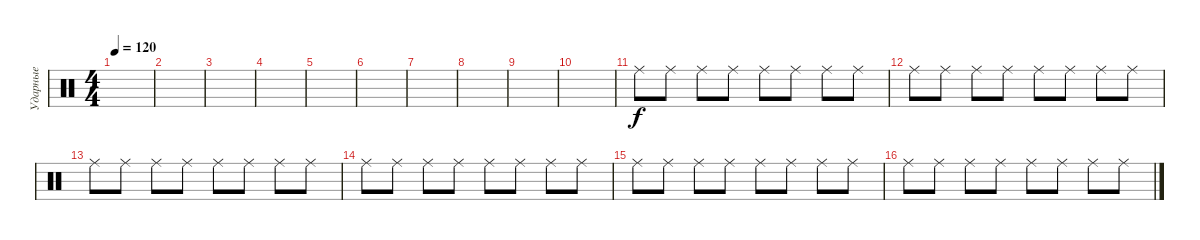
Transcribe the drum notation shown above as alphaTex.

\track ("Ударные" "Ударные") {instrument percussion}
\staff {score}
\articulation defaults
\ts (4 4)
\tempo 120
\clef neutral
\ks c
|
|
|
|
|
|
|
|
|
|
"Ride (middle)".8 "Ride (middle)".8 "Ride (middle)".8 "Ride (middle)".8 "Ride (middle)".8 "Ride (middle)".8 "Ride (middle)".8 "Ride (middle)".8 |
"Ride (middle)".8 "Ride (middle)".8 "Ride (middle)".8 "Ride (middle)".8 "Ride (middle)".8 "Ride (middle)".8 "Ride (middle)".8 "Ride (middle)".8 |
"Ride (middle)".8 "Ride (middle)".8 "Ride (middle)".8 "Ride (middle)".8 "Ride (middle)".8 "Ride (middle)".8 "Ride (middle)".8 "Ride (middle)".8 |
"Ride (middle)".8 "Ride (middle)".8 "Ride (middle)".8 "Ride (middle)".8 "Ride (middle)".8 "Ride (middle)".8 "Ride (middle)".8 "Ride (middle)".8 |
"Ride (middle)".8 "Ride (middle)".8 "Ride (middle)".8 "Ride (middle)".8 "Ride (middle)".8 "Ride (middle)".8 "Ride (middle)".8 "Ride (middle)".8 |
"Ride (middle)".8 "Ride (middle)".8 "Ride (middle)".8 "Ride (middle)".8 "Ride (middle)".8 "Ride (middle)".8 "Ride (middle)".8 "Ride (middle)".8
